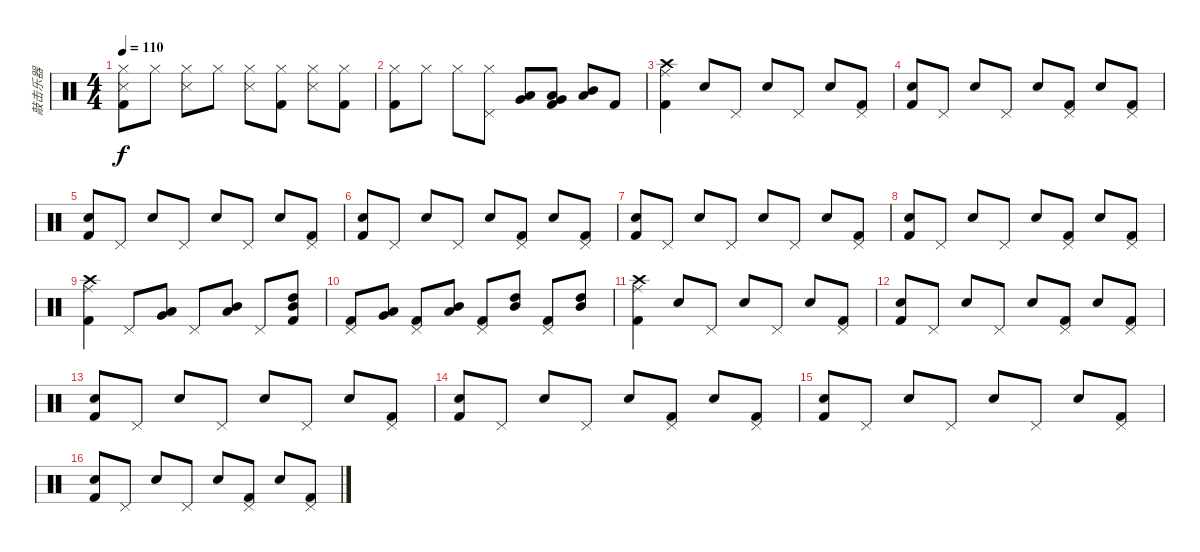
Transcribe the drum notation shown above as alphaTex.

\track ("敲击乐器" "敲击乐器") {instrument percussion}
\staff {score}
\articulation defaults
\ts (4 4)
\tempo 110
\clef neutral
\ks c
("Hi-Hat (closed)" "Metronome (hit)" "Kick (hit) 2").8{dy f} "Hi-Hat (closed)".8 ("Hi-Hat (closed)" "Metronome (hit)").8 "Hi-Hat (closed)".8 ("Hi-Hat (closed)" "Metronome (hit)").8 ("Hi-Hat (closed)" "Kick (hit) 2").8 ("Hi-Hat (closed)" "Metronome (hit)").8 ("Hi-Hat (closed)" "Kick (hit) 2").8 |
("Hi-Hat (closed)" "Kick (hit) 2").8 "Hi-Hat (closed)".8 "Hi-Hat (closed)".8 ("Hi-Hat (closed)" "Pedal Hi-Hat (hit)").8 ("Very Low Tom (hit)" "Low Floor Tom (hit)").8 ("Low Tom (hit)" "Very Low Tom (hit)" "Kick (hit) 2").8 ("Mid Tom (hit)" "Low Tom (hit)").8 "Kick (hit) 2".8 |
("Crash high (hit)" "Ride (middle)" "Kick (hit) 2").4 "Hand Clap (hit)".8 "Pedal Hi-Hat (hit)".8 "Hand Clap (hit)".8 "Pedal Hi-Hat (hit)".8 "Hand Clap (hit)".8 ("Pedal Hi-Hat (hit)" "Kick (hit) 2").8 |
("Hand Clap (hit)" "Kick (hit) 2").8 "Pedal Hi-Hat (hit)".8 "Hand Clap (hit)".8 "Pedal Hi-Hat (hit)".8 "Hand Clap (hit)".8 ("Pedal Hi-Hat (hit)" "Kick (hit) 2").8 "Hand Clap (hit)".8 ("Pedal Hi-Hat (hit)" "Kick (hit) 2").8 |
("Hand Clap (hit)" "Kick (hit) 2").8 "Pedal Hi-Hat (hit)".8 "Hand Clap (hit)".8 "Pedal Hi-Hat (hit)".8 "Hand Clap (hit)".8 "Pedal Hi-Hat (hit)".8 "Hand Clap (hit)".8 ("Pedal Hi-Hat (hit)" "Kick (hit) 2").8 |
("Hand Clap (hit)" "Kick (hit) 2").8 "Pedal Hi-Hat (hit)".8 "Hand Clap (hit)".8 "Pedal Hi-Hat (hit)".8 "Hand Clap (hit)".8 ("Pedal Hi-Hat (hit)" "Kick (hit) 2").8 "Hand Clap (hit)".8 ("Pedal Hi-Hat (hit)" "Kick (hit) 2").8 |
("Hand Clap (hit)" "Kick (hit) 2").8 "Pedal Hi-Hat (hit)".8 "Hand Clap (hit)".8 "Pedal Hi-Hat (hit)".8 "Hand Clap (hit)".8 "Pedal Hi-Hat (hit)".8 "Hand Clap (hit)".8 ("Pedal Hi-Hat (hit)" "Kick (hit) 2").8 |
("Hand Clap (hit)" "Kick (hit) 2").8 "Pedal Hi-Hat (hit)".8 "Hand Clap (hit)".8 "Pedal Hi-Hat (hit)".8 "Hand Clap (hit)".8 ("Pedal Hi-Hat (hit)" "Kick (hit) 2").8 "Hand Clap (hit)".8 ("Pedal Hi-Hat (hit)" "Kick (hit) 2").8 |
("Crash high (hit)" "Ride (middle)" "Kick (hit) 2").4 "Pedal Hi-Hat (hit)".8 ("Very Low Tom (hit)" "Low Tom (hit)").8 "Pedal Hi-Hat (hit)".8 ("Low Tom (hit)" "Mid Tom (hit)").8 "Pedal Hi-Hat (hit)".8 ("Mid Tom (hit)" "High Tom (hit)" "Kick (hit) 2").8 |
("Pedal Hi-Hat (hit)" "Kick (hit) 2").8 ("Very Low Tom (hit)" "Low Tom (hit)").8 ("Pedal Hi-Hat (hit)" "Kick (hit) 2").8 ("Low Tom (hit)" "Mid Tom (hit)").8 ("Pedal Hi-Hat (hit)" "Kick (hit) 2").8 ("Mid Tom (hit)" "High Tom (hit)").8 ("Pedal Hi-Hat (hit)" "Kick (hit) 2").8 ("Mid Tom (hit)" "High Tom (hit)").8 |
("Crash high (hit)" "Ride (middle)" "Kick (hit) 2").4 "Hand Clap (hit)".8 "Pedal Hi-Hat (hit)".8 "Hand Clap (hit)".8 "Pedal Hi-Hat (hit)".8 "Hand Clap (hit)".8 ("Pedal Hi-Hat (hit)" "Kick (hit) 2").8 |
("Hand Clap (hit)" "Kick (hit) 2").8 "Pedal Hi-Hat (hit)".8 "Hand Clap (hit)".8 "Pedal Hi-Hat (hit)".8 "Hand Clap (hit)".8 ("Pedal Hi-Hat (hit)" "Kick (hit) 2").8 "Hand Clap (hit)".8 ("Pedal Hi-Hat (hit)" "Kick (hit) 2").8 |
("Hand Clap (hit)" "Kick (hit) 2").8 "Pedal Hi-Hat (hit)".8 "Hand Clap (hit)".8 "Pedal Hi-Hat (hit)".8 "Hand Clap (hit)".8 "Pedal Hi-Hat (hit)".8 "Hand Clap (hit)".8 ("Pedal Hi-Hat (hit)" "Kick (hit) 2").8 |
("Hand Clap (hit)" "Kick (hit) 2").8 "Pedal Hi-Hat (hit)".8 "Hand Clap (hit)".8 "Pedal Hi-Hat (hit)".8 "Hand Clap (hit)".8 ("Pedal Hi-Hat (hit)" "Kick (hit) 2").8 "Hand Clap (hit)".8 ("Pedal Hi-Hat (hit)" "Kick (hit) 2").8 |
("Hand Clap (hit)" "Kick (hit) 2").8 "Pedal Hi-Hat (hit)".8 "Hand Clap (hit)".8 "Pedal Hi-Hat (hit)".8 "Hand Clap (hit)".8 "Pedal Hi-Hat (hit)".8 "Hand Clap (hit)".8 ("Pedal Hi-Hat (hit)" "Kick (hit) 2").8 |
("Hand Clap (hit)" "Kick (hit) 2").8 "Pedal Hi-Hat (hit)".8 "Hand Clap (hit)".8 "Pedal Hi-Hat (hit)".8 "Hand Clap (hit)".8 ("Pedal Hi-Hat (hit)" "Kick (hit) 2").8 "Hand Clap (hit)".8 ("Pedal Hi-Hat (hit)" "Kick (hit) 2").8
